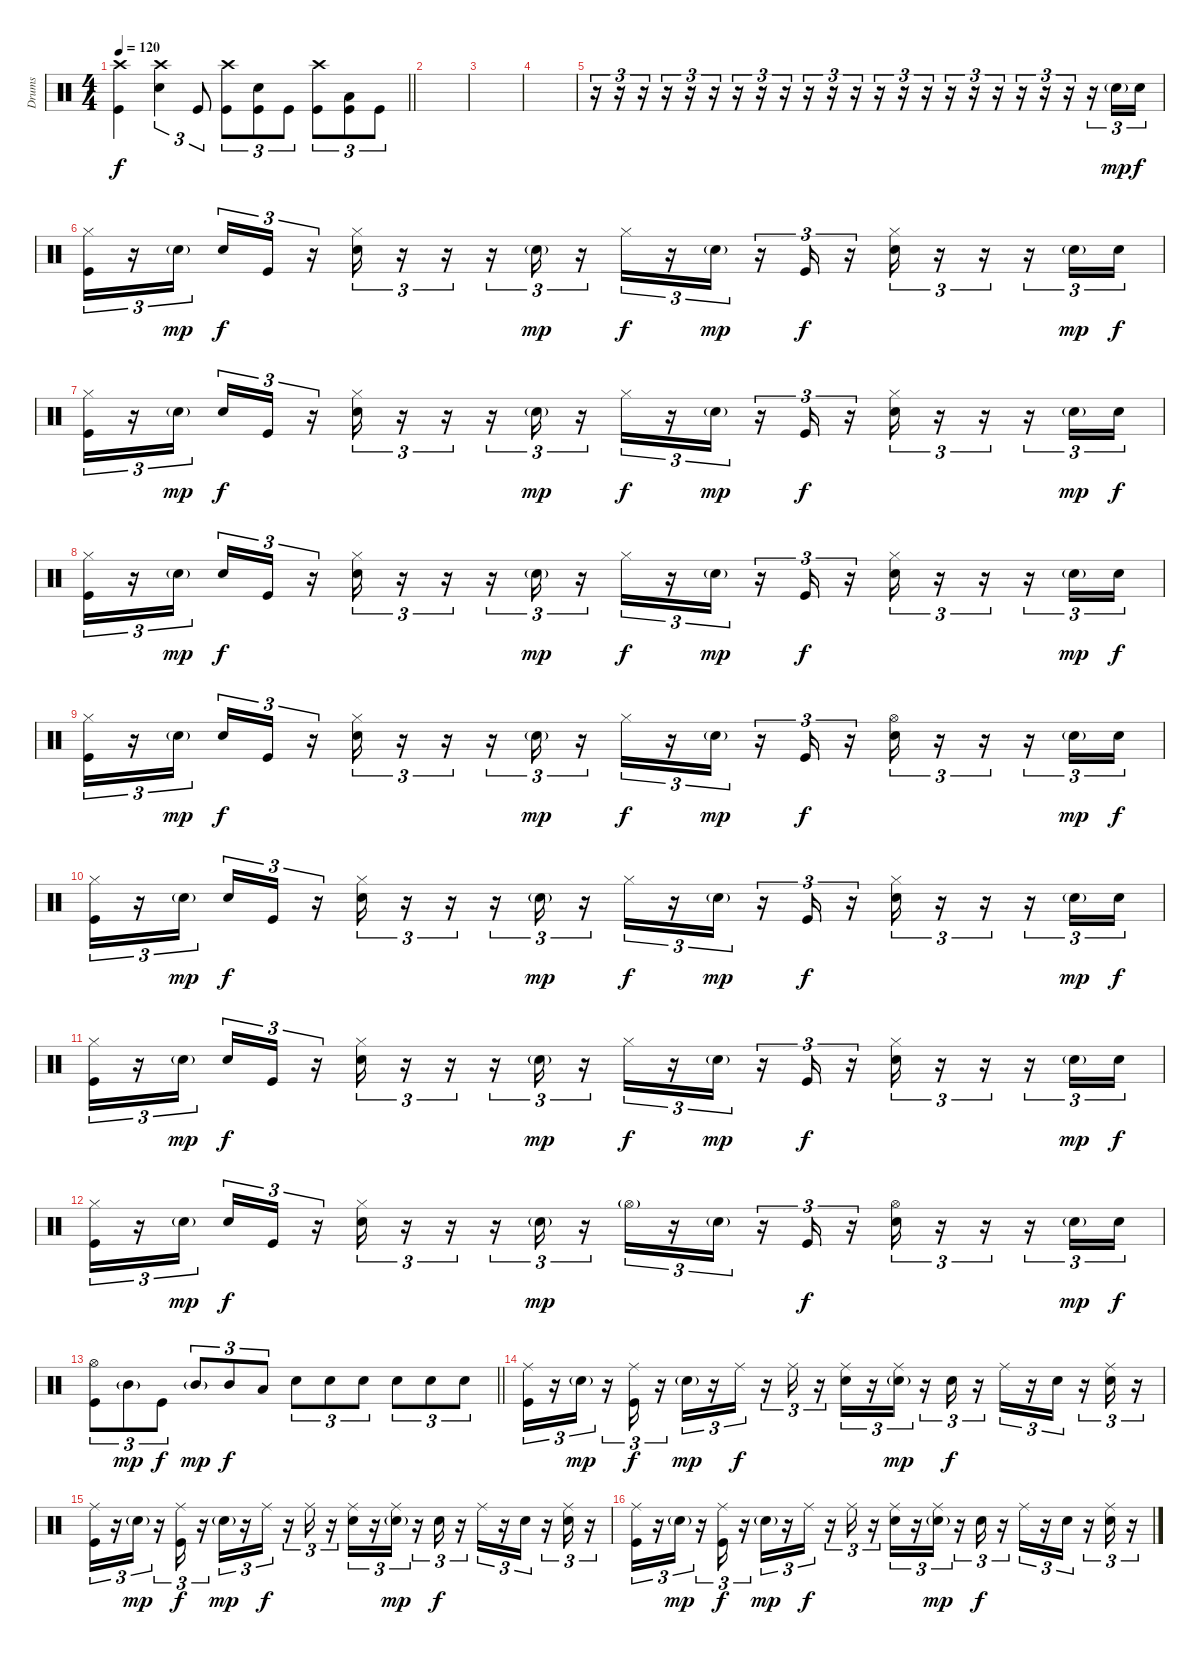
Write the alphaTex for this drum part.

\track ("Drums" "Drums") {instrument percussion}
\staff {score}
\articulation defaults
\ts (4 4)
\tempo 120
\clef neutral
\barLineRight lightlight
\ks c
("Crash high (hit)" "Kick (hit)").4{dy f} ("Crash high (hit)" "Snare (hit) 2").4{tu (3 2)} "Kick (hit)".8{tu (3 2)} ("Crash high (hit)" "Kick (hit)").8{tu (3 2)} ("Snare (hit) 2" "Kick (hit)").8{tu (3 2)} "Kick (hit)".8{tu (3 2)} ("Crash high (hit)" "Kick (hit)").8{tu (3 2)} ("Low Tom (hit)" "Kick (hit)").8{tu (3 2)} "Kick (hit)".8{tu (3 2)} |
\section ("" "")
|
|
|
r.16{tu (3 2)} r.16{tu (3 2)} r.16{tu (3 2)} r.16{tu (3 2)} r.16{tu (3 2)} r.16{tu (3 2)} r.16{tu (3 2)} r.16{tu (3 2)} r.16{tu (3 2)} r.16{tu (3 2)} r.16{tu (3 2)} r.16{tu (3 2)} r.16{tu (3 2)} r.16{tu (3 2)} r.16{tu (3 2)} r.16{tu (3 2)} r.16{tu (3 2)} r.16{tu (3 2)} r.16{tu (3 2)} r.16{tu (3 2)} r.16{tu (3 2)} r.16{tu (3 2)} "Snare (hit) 2"{g}.16{tu (3 2) dy mp} "Snare (hit) 2".16{tu (3 2) dy f} |
("Hi-Hat (closed)" "Kick (hit)").16{tu (3 2)} r.16{tu (3 2)} "Snare (hit) 2"{g}.16{tu (3 2) dy mp beam splitsecondary} "Snare (hit) 2".16{tu (3 2) dy f} "Kick (hit)".16{tu (3 2)} r.16{tu (3 2)} ("Hi-Hat (closed)" "Snare (hit) 2").16{tu (3 2)} r.16{tu (3 2)} r.16{tu (3 2)} r.16{tu (3 2)} "Snare (hit) 2"{g}.16{tu (3 2) dy mp} r.16{tu (3 2)} "Hi-Hat (closed)".16{tu (3 2) dy f} r.16{tu (3 2)} "Snare (hit) 2"{g}.16{tu (3 2) dy mp} r.16{tu (3 2)} "Kick (hit)".16{tu (3 2) dy f} r.16{tu (3 2)} ("Hi-Hat (closed)" "Snare (hit) 2").16{tu (3 2)} r.16{tu (3 2)} r.16{tu (3 2)} r.16{tu (3 2)} "Snare (hit) 2"{g}.16{tu (3 2) dy mp} "Snare (hit) 2".16{tu (3 2) dy f} |
("Hi-Hat (closed)" "Kick (hit)").16{tu (3 2)} r.16{tu (3 2)} "Snare (hit) 2"{g}.16{tu (3 2) dy mp beam splitsecondary} "Snare (hit) 2".16{tu (3 2) dy f} "Kick (hit)".16{tu (3 2)} r.16{tu (3 2)} ("Hi-Hat (closed)" "Snare (hit) 2").16{tu (3 2)} r.16{tu (3 2)} r.16{tu (3 2)} r.16{tu (3 2)} "Snare (hit) 2"{g}.16{tu (3 2) dy mp} r.16{tu (3 2)} "Hi-Hat (closed)".16{tu (3 2) dy f} r.16{tu (3 2)} "Snare (hit) 2"{g}.16{tu (3 2) dy mp} r.16{tu (3 2)} "Kick (hit)".16{tu (3 2) dy f} r.16{tu (3 2)} ("Hi-Hat (closed)" "Snare (hit) 2").16{tu (3 2)} r.16{tu (3 2)} r.16{tu (3 2)} r.16{tu (3 2)} "Snare (hit) 2"{g}.16{tu (3 2) dy mp} "Snare (hit) 2".16{tu (3 2) dy f} |
("Hi-Hat (closed)" "Kick (hit)").16{tu (3 2)} r.16{tu (3 2)} "Snare (hit) 2"{g}.16{tu (3 2) dy mp beam splitsecondary} "Snare (hit) 2".16{tu (3 2) dy f} "Kick (hit)".16{tu (3 2)} r.16{tu (3 2)} ("Hi-Hat (closed)" "Snare (hit) 2").16{tu (3 2)} r.16{tu (3 2)} r.16{tu (3 2)} r.16{tu (3 2)} "Snare (hit) 2"{g}.16{tu (3 2) dy mp} r.16{tu (3 2)} "Hi-Hat (closed)".16{tu (3 2) dy f} r.16{tu (3 2)} "Snare (hit) 2"{g}.16{tu (3 2) dy mp} r.16{tu (3 2)} "Kick (hit)".16{tu (3 2) dy f} r.16{tu (3 2)} ("Hi-Hat (closed)" "Snare (hit) 2").16{tu (3 2)} r.16{tu (3 2)} r.16{tu (3 2)} r.16{tu (3 2)} "Snare (hit) 2"{g}.16{tu (3 2) dy mp} "Snare (hit) 2".16{tu (3 2) dy f} |
("Hi-Hat (closed)" "Kick (hit)").16{tu (3 2)} r.16{tu (3 2)} "Snare (hit) 2"{g}.16{tu (3 2) dy mp beam splitsecondary} "Snare (hit) 2".16{tu (3 2) dy f} "Kick (hit)".16{tu (3 2)} r.16{tu (3 2)} ("Hi-Hat (closed)" "Snare (hit) 2").16{tu (3 2)} r.16{tu (3 2)} r.16{tu (3 2)} r.16{tu (3 2)} "Snare (hit) 2"{g}.16{tu (3 2) dy mp} r.16{tu (3 2)} "Hi-Hat (closed)".16{tu (3 2) dy f} r.16{tu (3 2)} "Snare (hit) 2"{g}.16{tu (3 2) dy mp} r.16{tu (3 2)} "Kick (hit)".16{tu (3 2) dy f} r.16{tu (3 2)} ("Hi-Hat (open)" "Snare (hit) 2").16{tu (3 2)} r.16{tu (3 2)} r.16{tu (3 2)} r.16{tu (3 2)} "Snare (hit) 2"{g}.16{tu (3 2) dy mp} "Snare (hit) 2".16{tu (3 2) dy f} |
("Hi-Hat (closed)" "Kick (hit)").16{tu (3 2)} r.16{tu (3 2)} "Snare (hit) 2"{g}.16{tu (3 2) dy mp beam splitsecondary} "Snare (hit) 2".16{tu (3 2) dy f} "Kick (hit)".16{tu (3 2)} r.16{tu (3 2)} ("Hi-Hat (closed)" "Snare (hit) 2").16{tu (3 2)} r.16{tu (3 2)} r.16{tu (3 2)} r.16{tu (3 2)} "Snare (hit) 2"{g}.16{tu (3 2) dy mp} r.16{tu (3 2)} "Hi-Hat (closed)".16{tu (3 2) dy f} r.16{tu (3 2)} "Snare (hit) 2"{g}.16{tu (3 2) dy mp} r.16{tu (3 2)} "Kick (hit)".16{tu (3 2) dy f} r.16{tu (3 2)} ("Hi-Hat (closed)" "Snare (hit) 2").16{tu (3 2)} r.16{tu (3 2)} r.16{tu (3 2)} r.16{tu (3 2)} "Snare (hit) 2"{g}.16{tu (3 2) dy mp} "Snare (hit) 2".16{tu (3 2) dy f} |
("Hi-Hat (closed)" "Kick (hit)").16{tu (3 2)} r.16{tu (3 2)} "Snare (hit) 2"{g}.16{tu (3 2) dy mp beam splitsecondary} "Snare (hit) 2".16{tu (3 2) dy f} "Kick (hit)".16{tu (3 2)} r.16{tu (3 2)} ("Hi-Hat (closed)" "Snare (hit) 2").16{tu (3 2)} r.16{tu (3 2)} r.16{tu (3 2)} r.16{tu (3 2)} "Snare (hit) 2"{g}.16{tu (3 2) dy mp} r.16{tu (3 2)} "Hi-Hat (closed)".16{tu (3 2) dy f} r.16{tu (3 2)} "Snare (hit) 2"{g}.16{tu (3 2) dy mp} r.16{tu (3 2)} "Kick (hit)".16{tu (3 2) dy f} r.16{tu (3 2)} ("Hi-Hat (closed)" "Snare (hit) 2").16{tu (3 2)} r.16{tu (3 2)} r.16{tu (3 2)} r.16{tu (3 2)} "Snare (hit) 2"{g}.16{tu (3 2) dy mp} "Snare (hit) 2".16{tu (3 2) dy f} |
("Hi-Hat (closed)" "Kick (hit)").16{tu (3 2)} r.16{tu (3 2)} "Snare (hit) 2"{g}.16{tu (3 2) dy mp beam splitsecondary} "Snare (hit) 2".16{tu (3 2) dy f} "Kick (hit)".16{tu (3 2)} r.16{tu (3 2)} ("Hi-Hat (closed)" "Snare (hit) 2").16{tu (3 2)} r.16{tu (3 2)} r.16{tu (3 2)} r.16{tu (3 2)} "Snare (hit) 2"{g}.16{tu (3 2) dy mp} r.16{tu (3 2)} "Hi-Hat (open)"{g}.16{tu (3 2)} r.16{tu (3 2)} "Snare (hit) 2"{g}.16{tu (3 2)} r.16{tu (3 2)} "Kick (hit)".16{tu (3 2) dy f} r.16{tu (3 2)} ("Hi-Hat (open)" "Snare (hit) 2").16{tu (3 2)} r.16{tu (3 2)} r.16{tu (3 2)} r.16{tu (3 2)} "Snare (hit) 2"{g}.16{tu (3 2) dy mp} "Snare (hit) 2".16{tu (3 2) dy f} |
\barLineRight lightlight
("Hi-Hat (open)" "Kick (hit)").8{tu (3 2)} "Mid Tom (hit)"{g}.8{tu (3 2) dy mp} "Kick (hit)".8{tu (3 2) dy f} "Mid Tom (hit)"{g}.8{tu (3 2) dy mp} "Mid Tom (hit)".8{tu (3 2) dy f} "Low Tom (hit)".8{tu (3 2)} "Snare (hit) 2".8{tu (3 2)} "Snare (hit) 2".8{tu (3 2)} "Snare (hit) 2".8{tu (3 2)} "Snare (hit) 2".8{tu (3 2)} "Snare (hit) 2".8{tu (3 2)} "Snare (hit) 2".8{tu (3 2)} |
\section ("" "")
("Ride (middle)" "Kick (hit)").16{tu (3 2)} r.16{tu (3 2)} "Snare (hit) 2"{g}.16{tu (3 2) dy mp} r.16{tu (3 2)} ("Ride (middle)" "Kick (hit)").16{tu (3 2) dy f} r.16{tu (3 2)} "Snare (hit) 2"{g}.16{tu (3 2) dy mp} r.16{tu (3 2)} "Ride (middle)".16{tu (3 2) dy f} r.16{tu (3 2)} "Ride (middle)".16{tu (3 2)} r.16{tu (3 2)} ("Ride (middle)" "Snare (hit) 2").16{tu (3 2)} r.16{tu (3 2)} ("Ride (middle)" "Snare (hit) 2"{g}).16{tu (3 2) dy mp} r.16{tu (3 2)} "Snare (hit) 2".16{tu (3 2) dy f} r.16{tu (3 2)} "Ride (middle)".16{tu (3 2)} r.16{tu (3 2)} "Snare (hit) 2".16{tu (3 2)} r.16{tu (3 2)} ("Ride (middle)" "Snare (hit) 2").16{tu (3 2)} r.16{tu (3 2)} |
("Ride (middle)" "Kick (hit)").16{tu (3 2)} r.16{tu (3 2)} "Snare (hit) 2"{g}.16{tu (3 2) dy mp} r.16{tu (3 2)} ("Ride (middle)" "Kick (hit)").16{tu (3 2) dy f} r.16{tu (3 2)} "Snare (hit) 2"{g}.16{tu (3 2) dy mp} r.16{tu (3 2)} "Ride (middle)".16{tu (3 2) dy f} r.16{tu (3 2)} "Ride (middle)".16{tu (3 2)} r.16{tu (3 2)} ("Ride (middle)" "Snare (hit) 2").16{tu (3 2)} r.16{tu (3 2)} ("Ride (middle)" "Snare (hit) 2"{g}).16{tu (3 2) dy mp} r.16{tu (3 2)} "Snare (hit) 2".16{tu (3 2) dy f} r.16{tu (3 2)} "Ride (middle)".16{tu (3 2)} r.16{tu (3 2)} "Snare (hit) 2".16{tu (3 2)} r.16{tu (3 2)} ("Ride (middle)" "Snare (hit) 2").16{tu (3 2)} r.16{tu (3 2)} |
("Ride (middle)" "Kick (hit)").16{tu (3 2)} r.16{tu (3 2)} "Snare (hit) 2"{g}.16{tu (3 2) dy mp} r.16{tu (3 2)} ("Ride (middle)" "Kick (hit)").16{tu (3 2) dy f} r.16{tu (3 2)} "Snare (hit) 2"{g}.16{tu (3 2) dy mp} r.16{tu (3 2)} "Ride (middle)".16{tu (3 2) dy f} r.16{tu (3 2)} "Ride (middle)".16{tu (3 2)} r.16{tu (3 2)} ("Ride (middle)" "Snare (hit) 2").16{tu (3 2)} r.16{tu (3 2)} ("Ride (middle)" "Snare (hit) 2"{g}).16{tu (3 2) dy mp} r.16{tu (3 2)} "Snare (hit) 2".16{tu (3 2) dy f} r.16{tu (3 2)} "Ride (middle)".16{tu (3 2)} r.16{tu (3 2)} "Snare (hit) 2".16{tu (3 2)} r.16{tu (3 2)} ("Ride (middle)" "Snare (hit) 2").16{tu (3 2)} r.16{tu (3 2)}
